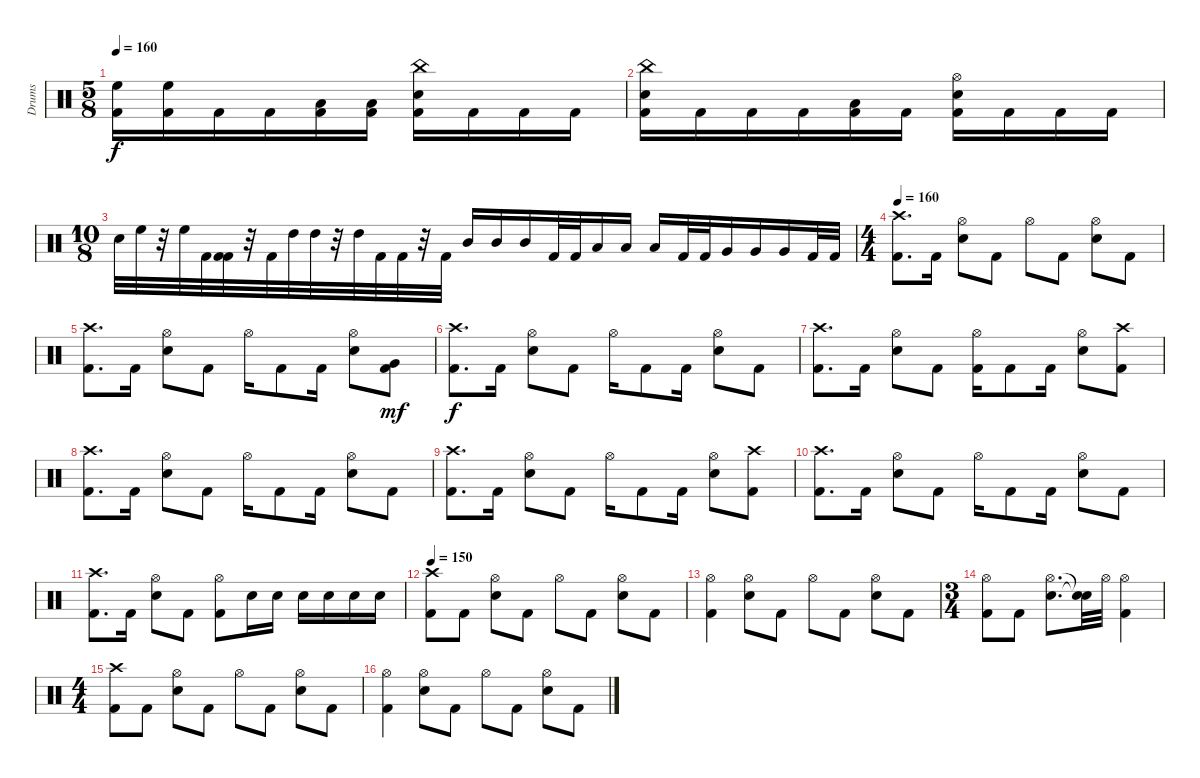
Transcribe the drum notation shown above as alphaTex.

\track ("Drums" "Drums") {instrument percussion}
\staff {score}
\articulation defaults
\ts (5 8)
\tempo 160
\clef neutral
\ks c
("Kick (hit) 2" "High Floor Tom (hit)").16{dy f} ("Kick (hit) 2" "High Floor Tom (hit)").16 "Kick (hit) 2".16 "Kick (hit) 2".16 ("Kick (hit) 2" "Low Tom (hit)").16 ("Kick (hit) 2" "Low Tom (hit)").16 ("Kick (hit) 2" "Electric Snare (hit)" "China (hit)").16 "Kick (hit) 2".16 "Kick (hit) 2".16 "Kick (hit) 2".16 |
("Kick (hit) 2" "Electric Snare (hit)" "China (hit)").16 "Kick (hit) 2".16 "Kick (hit) 2".16 "Kick (hit) 2".16 ("Kick (hit) 2" "Low Tom (hit)").16 "Kick (hit) 2".16 ("Kick (hit) 2" "Electric Snare (hit)" "Hi-Hat (open)").16 "Kick (hit) 2".16 "Kick (hit) 2".16 "Kick (hit) 2".16 |
\ts (10 8)
"Electric Snare (hit)".32 "High Floor Tom (hit)".32 r.32 "High Floor Tom (hit)".32 "Kick (hit) 2".32 ("Kick (hit) 2" "Kick (hit) 2").32 r.32 "Kick (hit) 2".32 "High Tom (hit)".32 "High Tom (hit)".32 r.32 "High Tom (hit)".32 "Kick (hit) 2".32 "Kick (hit) 2".32 r.32 "Kick (hit) 2".32 "Mid Tom (hit)".16 "Mid Tom (hit)".16 "Mid Tom (hit)".16 "Kick (hit) 2".32 "Kick (hit) 2".32 "Low Tom (hit)".16 "Low Tom (hit)".16 "Low Tom (hit)".16 "Kick (hit) 2".32 "Kick (hit) 2".32 "Very Low Tom (hit)".16 "Very Low Tom (hit)".16 "Very Low Tom (hit)".16 "Kick (hit) 2".32 "Kick (hit) 2".32 |
\ts (4 4)
\tempo 160
("Crash high (hit)" "Kick (hit) 2").8{d} "Kick (hit) 2".16 ("Electric Snare (hit)" "Hi-Hat (open)").8 "Kick (hit) 2".8 "Hi-Hat (open)".8 "Kick (hit) 2".8 ("Electric Snare (hit)" "Hi-Hat (open)").8 "Kick (hit) 2".8 |
("Kick (hit) 2" "Crash high (hit)").8{d} "Kick (hit) 2".16 ("Electric Snare (hit)" "Hi-Hat (open)").8 "Kick (hit) 2".8 "Hi-Hat (open)".16 "Kick (hit) 2".8 "Kick (hit) 2".16 ("Electric Snare (hit)" "Hi-Hat (open)").8 ("Kick (hit) 2" "Very Low Tom (hit)").8{dy mf} |
("Crash high (hit)" "Kick (hit) 2").8{d dy f} "Kick (hit) 2".16 ("Electric Snare (hit)" "Hi-Hat (open)").8 "Kick (hit) 2".8 "Hi-Hat (open)".16 "Kick (hit) 2".8 "Kick (hit) 2".16 ("Electric Snare (hit)" "Hi-Hat (open)").8 "Kick (hit) 2".8 |
("Kick (hit) 2" "Crash high (hit)").8{d} "Kick (hit) 2".16 ("Electric Snare (hit)" "Hi-Hat (open)").8 "Kick (hit) 2".8 ("Hi-Hat (open)" "Kick (hit) 2").16 "Kick (hit) 2".8 "Kick (hit) 2".16 ("Electric Snare (hit)" "Hi-Hat (open)").8 ("Kick (hit) 2" "Crash high (hit)").8 |
("Kick (hit) 2" "Crash high (hit)").8{d} "Kick (hit) 2".16 ("Electric Snare (hit)" "Hi-Hat (open)").8 "Kick (hit) 2".8 "Hi-Hat (open)".16 "Kick (hit) 2".8 "Kick (hit) 2".16 ("Electric Snare (hit)" "Hi-Hat (open)").8 "Kick (hit) 2".8 |
("Kick (hit) 2" "Crash high (hit)").8{d} "Kick (hit) 2".16 ("Electric Snare (hit)" "Hi-Hat (open)").8 "Kick (hit) 2".8 "Hi-Hat (open)".16 "Kick (hit) 2".8 "Kick (hit) 2".16 ("Electric Snare (hit)" "Hi-Hat (open)").8 ("Kick (hit) 2" "Crash high (hit)").8 |
("Crash high (hit)" "Kick (hit) 2").8{d} "Kick (hit) 2".16 ("Electric Snare (hit)" "Hi-Hat (open)").8 "Kick (hit) 2".8 "Hi-Hat (open)".16 "Kick (hit) 2".8 "Kick (hit) 2".16 ("Electric Snare (hit)" "Hi-Hat (open)").8 "Kick (hit) 2".8 |
("Kick (hit) 2" "Crash high (hit)").8{d} "Kick (hit) 2".16 ("Electric Snare (hit)" "Hi-Hat (open)").8 "Kick (hit) 2".8 ("Kick (hit) 2" "Hi-Hat (open)").8 "Electric Snare (hit)".16 "Electric Snare (hit)".16 "Electric Snare (hit)".16 "Electric Snare (hit)".16 "Electric Snare (hit)".16 "Electric Snare (hit)".16 |
\tempo 150
("Kick (hit) 2" "Crash high (hit)").8 "Kick (hit) 2".8 ("Electric Snare (hit)" "Hi-Hat (open)").8 "Kick (hit) 2".8 "Hi-Hat (open)".8 "Kick (hit) 2".8 ("Hi-Hat (open)" "Electric Snare (hit)").8 "Kick (hit) 2".8 |
("Hi-Hat (open)" "Kick (hit) 2").4 ("Electric Snare (hit)" "Hi-Hat (open)").8 "Kick (hit) 2".8 "Hi-Hat (open)".8 "Kick (hit) 2".8 ("Electric Snare (hit)" "Hi-Hat (open)").8 "Kick (hit) 2".8 |
\ts (3 4)
("Kick (hit) 2" "Hi-Hat (open)").8 "Kick (hit) 2".8 ("Electric Snare (hit)" "Hi-Hat (open)").8{d} ("Snare (hit)"{t} "Snare (hit)"{t}).32 "Hi-Hat (open)".32 ("Kick (hit) 2" "Hi-Hat (open)").4 |
\ts (4 4)
("Crash high (hit)" "Kick (hit) 2").8 "Kick (hit) 2".8 ("Electric Snare (hit)" "Hi-Hat (open)").8 "Kick (hit) 2".8 "Hi-Hat (open)".8 "Kick (hit) 2".8 ("Hi-Hat (open)" "Electric Snare (hit)").8 "Kick (hit) 2".8 |
("Hi-Hat (open)" "Kick (hit) 2").4 ("Electric Snare (hit)" "Hi-Hat (open)").8 "Kick (hit) 2".8 "Hi-Hat (open)".8 "Kick (hit) 2".8 ("Electric Snare (hit)" "Hi-Hat (open)").8 "Kick (hit) 2".8
